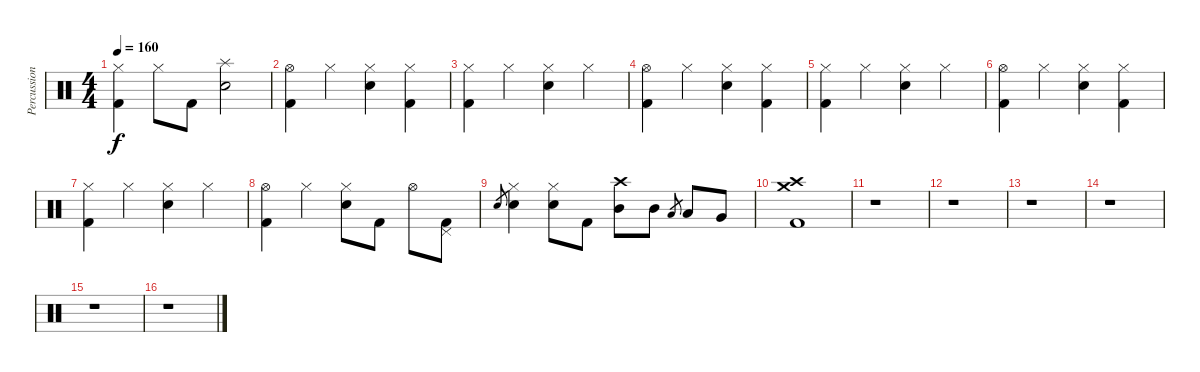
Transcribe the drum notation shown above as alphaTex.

\track ("Percussion" "Percussion") {instrument percussion}
\staff {score}
\articulation defaults
\ts (4 4)
\tempo 160
\clef neutral
\ks c
("Hi-Hat (closed)" "Kick (hit) 2").4{dy f} "Hi-Hat (closed)".8 "Kick (hit) 2".8 ("Splash (hit)" "Electric Snare (hit)").2 |
("Hi-Hat (open)" "Kick (hit) 2").4 "Hi-Hat (closed)".4 ("Hi-Hat (closed)" "Electric Snare (hit)").4 ("Hi-Hat (closed)" "Kick (hit) 2").4 |
("Hi-Hat (closed)" "Kick (hit) 2").4 "Hi-Hat (closed)".4 ("Hi-Hat (closed)" "Electric Snare (hit)").4 "Hi-Hat (closed)".4 |
("Hi-Hat (open)" "Kick (hit) 2").4 "Hi-Hat (closed)".4 ("Hi-Hat (closed)" "Electric Snare (hit)").4 ("Hi-Hat (closed)" "Kick (hit) 2").4 |
("Hi-Hat (closed)" "Kick (hit) 2").4 "Hi-Hat (closed)".4 ("Hi-Hat (closed)" "Electric Snare (hit)").4 "Hi-Hat (closed)".4 |
("Hi-Hat (open)" "Kick (hit) 2").4 "Hi-Hat (closed)".4 ("Hi-Hat (closed)" "Electric Snare (hit)").4 ("Hi-Hat (closed)" "Kick (hit) 2").4 |
("Hi-Hat (closed)" "Kick (hit) 2").4 "Hi-Hat (closed)".4 ("Hi-Hat (closed)" "Electric Snare (hit)").4 "Hi-Hat (closed)".4 |
("Hi-Hat (open)" "Kick (hit) 2").4 "Hi-Hat (closed)".4 ("Hi-Hat (closed)" "Electric Snare (hit)").8 "Kick (hit) 2".8 "Hi-Hat (open)".8 ("Pedal Hi-Hat (hit)" "Kick (hit) 2").8 |
"Electric Snare (hit)".8{gr} ("Hi-Hat (closed)" "Electric Snare (hit)").4 ("Hi-Hat (closed)" "Electric Snare (hit)").8 "Kick (hit) 2".8 ("Crash high (hit)" "Mid Tom (hit)").8 "Mid Tom (hit)".8 "Low Tom (hit)".8{gr} "Low Tom (hit)".8 "Very Low Tom (hit)".8 |
("Crash medium (hit)" "Crash high (hit)" "Kick (hit) 2").1 |
r.1 |
r.1 |
r.1 |
r.1 |
r.1 |
r.1
